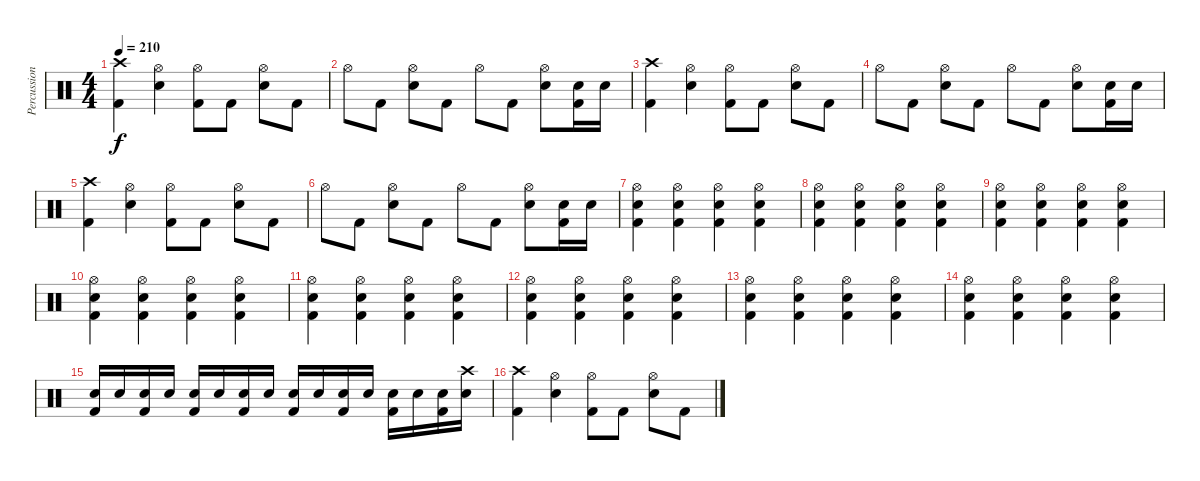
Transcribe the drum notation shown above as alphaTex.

\track ("Percussions" "Percussion") {instrument percussion}
\staff {score}
\articulation defaults
\ts (4 4)
\tempo 210
\clef neutral
\ks c
("Kick (hit) 2" "Crash high (hit)").4{dy f} ("Snare (hit) 2" "Hi-Hat (open)").4 ("Kick (hit) 2" "Hi-Hat (open)").8 "Kick (hit) 2".8 ("Snare (hit) 2" "Hi-Hat (open)").8 "Kick (hit) 2".8 |
"Hi-Hat (open)".8 "Kick (hit) 2".8 ("Snare (hit) 2" "Hi-Hat (open)").8 "Kick (hit) 2".8 "Hi-Hat (open)".8 "Kick (hit) 2".8 ("Snare (hit) 2" "Hi-Hat (open)").8 ("Kick (hit) 2" "Snare (hit) 2").16 "Snare (hit) 2".16 |
("Kick (hit) 2" "Crash high (hit)").4 ("Snare (hit) 2" "Hi-Hat (open)").4 ("Kick (hit) 2" "Hi-Hat (open)").8 "Kick (hit) 2".8 ("Snare (hit) 2" "Hi-Hat (open)").8 "Kick (hit) 2".8 |
"Hi-Hat (open)".8 "Kick (hit) 2".8 ("Snare (hit) 2" "Hi-Hat (open)").8 "Kick (hit) 2".8 "Hi-Hat (open)".8 "Kick (hit) 2".8 ("Snare (hit) 2" "Hi-Hat (open)").8 ("Kick (hit) 2" "Snare (hit) 2").16 "Snare (hit) 2".16 |
("Kick (hit) 2" "Crash high (hit)").4 ("Snare (hit) 2" "Hi-Hat (open)").4 ("Kick (hit) 2" "Hi-Hat (open)").8 "Kick (hit) 2".8 ("Snare (hit) 2" "Hi-Hat (open)").8 "Kick (hit) 2".8 |
"Hi-Hat (open)".8 "Kick (hit) 2".8 ("Snare (hit) 2" "Hi-Hat (open)").8 "Kick (hit) 2".8 "Hi-Hat (open)".8 "Kick (hit) 2".8 ("Snare (hit) 2" "Hi-Hat (open)").8 ("Kick (hit) 2" "Snare (hit) 2").16 "Snare (hit) 2".16 |
("Kick (hit) 2" "Snare (hit) 2" "Hi-Hat (open)").4 ("Kick (hit) 2" "Snare (hit) 2" "Hi-Hat (open)").4 ("Kick (hit) 2" "Snare (hit) 2" "Hi-Hat (open)").4 ("Kick (hit) 2" "Snare (hit) 2" "Hi-Hat (open)").4 |
("Kick (hit) 2" "Snare (hit) 2" "Hi-Hat (open)").4 ("Kick (hit) 2" "Snare (hit) 2" "Hi-Hat (open)").4 ("Kick (hit) 2" "Snare (hit) 2" "Hi-Hat (open)").4 ("Kick (hit) 2" "Snare (hit) 2" "Hi-Hat (open)").4 |
("Kick (hit) 2" "Snare (hit) 2" "Hi-Hat (open)").4 ("Kick (hit) 2" "Snare (hit) 2" "Hi-Hat (open)").4 ("Kick (hit) 2" "Snare (hit) 2" "Hi-Hat (open)").4 ("Kick (hit) 2" "Snare (hit) 2" "Hi-Hat (open)").4 |
("Kick (hit) 2" "Snare (hit) 2" "Hi-Hat (open)").4 ("Kick (hit) 2" "Snare (hit) 2" "Hi-Hat (open)").4 ("Kick (hit) 2" "Snare (hit) 2" "Hi-Hat (open)").4 ("Kick (hit) 2" "Snare (hit) 2" "Hi-Hat (open)").4 |
("Kick (hit) 2" "Snare (hit) 2" "Hi-Hat (open)").4 ("Kick (hit) 2" "Snare (hit) 2" "Hi-Hat (open)").4 ("Kick (hit) 2" "Snare (hit) 2" "Hi-Hat (open)").4 ("Kick (hit) 2" "Snare (hit) 2" "Hi-Hat (open)").4 |
("Kick (hit) 2" "Snare (hit) 2" "Hi-Hat (open)").4 ("Kick (hit) 2" "Snare (hit) 2" "Hi-Hat (open)").4 ("Kick (hit) 2" "Snare (hit) 2" "Hi-Hat (open)").4 ("Kick (hit) 2" "Snare (hit) 2" "Hi-Hat (open)").4 |
("Kick (hit) 2" "Snare (hit) 2" "Hi-Hat (open)").4 ("Kick (hit) 2" "Snare (hit) 2" "Hi-Hat (open)").4 ("Kick (hit) 2" "Snare (hit) 2" "Hi-Hat (open)").4 ("Kick (hit) 2" "Snare (hit) 2" "Hi-Hat (open)").4 |
("Kick (hit) 2" "Snare (hit) 2" "Hi-Hat (open)").4 ("Kick (hit) 2" "Snare (hit) 2" "Hi-Hat (open)").4 ("Kick (hit) 2" "Snare (hit) 2" "Hi-Hat (open)").4 ("Kick (hit) 2" "Snare (hit) 2" "Hi-Hat (open)").4 |
("Kick (hit) 2" "Snare (hit) 2").16 "Snare (hit) 2".16 ("Kick (hit) 2" "Snare (hit) 2").16 "Snare (hit) 2".16 ("Kick (hit) 2" "Snare (hit) 2").16 "Snare (hit) 2".16 ("Kick (hit) 2" "Snare (hit) 2").16 "Snare (hit) 2".16 ("Kick (hit) 2" "Snare (hit) 2").16 "Snare (hit) 2".16 ("Kick (hit) 2" "Snare (hit) 2").16 "Snare (hit) 2".16 ("Kick (hit) 2" "Snare (hit) 2").16 "Snare (hit) 2".16 ("Kick (hit) 2" "Snare (hit) 2").16 ("Snare (hit) 2" "Crash high (hit)").16 |
("Kick (hit) 2" "Crash high (hit)").4 ("Snare (hit) 2" "Hi-Hat (open)").4 ("Kick (hit) 2" "Hi-Hat (open)").8 "Kick (hit) 2".8 ("Snare (hit) 2" "Hi-Hat (open)").8 "Kick (hit) 2".8
